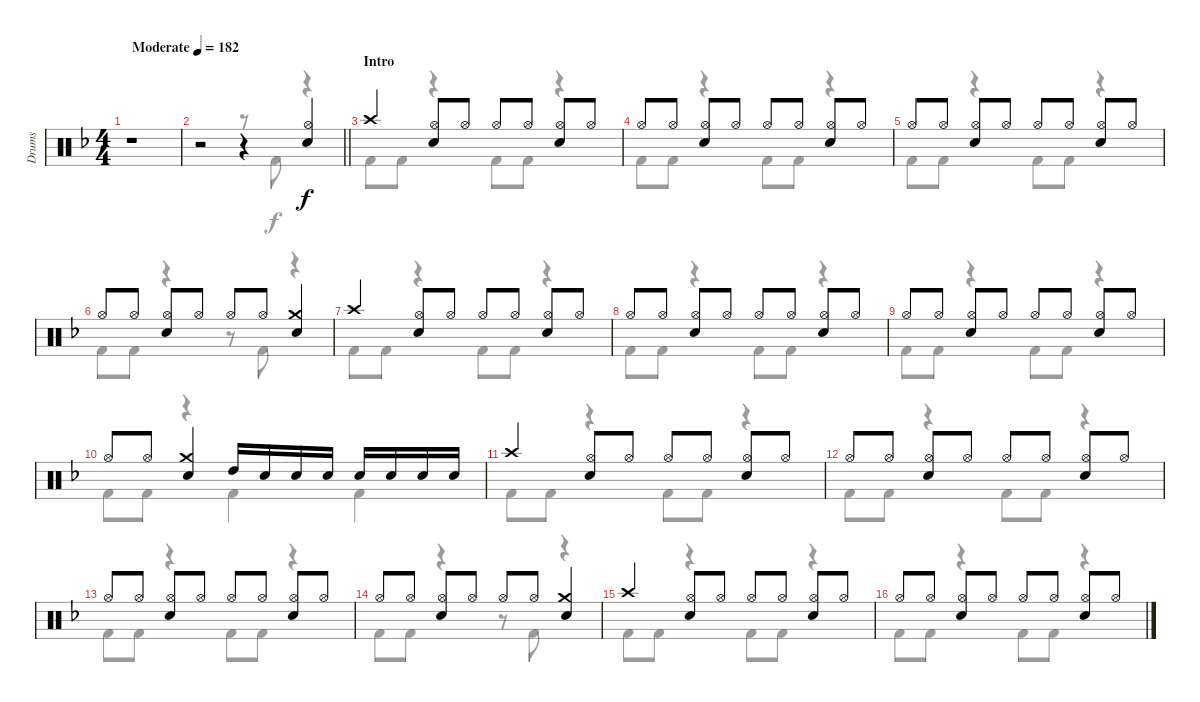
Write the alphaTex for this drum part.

\track ("Drums" "Drums") {instrument percussion}
\staff {score}
\articulation defaults
\voice
\ts (4 4)
\tempo (182 "Moderate")
\clef neutral
\ks f
r.1{dy f} |
\barLineRight lightlight
r.2 r.4 ("Hi-Hat (open)" "Snare (hit) 2").4 |
\section ("" "Intro")
"Crash high (hit)".4 ("Hi-Hat (open)" "Snare (hit) 2").8 "Hi-Hat (open)".8 "Hi-Hat (open)".8 "Hi-Hat (open)".8 ("Hi-Hat (open)" "Snare (hit) 2").8 "Hi-Hat (open)".8 |
"Hi-Hat (open)".8 "Hi-Hat (open)".8 ("Hi-Hat (open)" "Snare (hit) 2").8 "Hi-Hat (open)".8 "Hi-Hat (open)".8 "Hi-Hat (open)".8 ("Hi-Hat (open)" "Snare (hit) 2").8 "Hi-Hat (open)".8 |
"Hi-Hat (open)".8 "Hi-Hat (open)".8 ("Hi-Hat (open)" "Snare (hit) 2").8 "Hi-Hat (open)".8 "Hi-Hat (open)".8 "Hi-Hat (open)".8 ("Hi-Hat (open)" "Snare (hit) 2").8 "Hi-Hat (open)".8 |
"Hi-Hat (open)".8 "Hi-Hat (open)".8 ("Hi-Hat (open)" "Snare (hit) 2").8 "Hi-Hat (open)".8 "Hi-Hat (open)".8 "Hi-Hat (open)".8 ("Crash medium (hit)" "Snare (hit) 2").4 |
"Crash high (hit)".4 ("Hi-Hat (open)" "Snare (hit) 2").8 "Hi-Hat (open)".8 "Hi-Hat (open)".8 "Hi-Hat (open)".8 ("Hi-Hat (open)" "Snare (hit) 2").8 "Hi-Hat (open)".8 |
"Hi-Hat (open)".8 "Hi-Hat (open)".8 ("Hi-Hat (open)" "Snare (hit) 2").8 "Hi-Hat (open)".8 "Hi-Hat (open)".8 "Hi-Hat (open)".8 ("Hi-Hat (open)" "Snare (hit) 2").8 "Hi-Hat (open)".8 |
"Hi-Hat (open)".8 "Hi-Hat (open)".8 ("Hi-Hat (open)" "Snare (hit) 2").8 "Hi-Hat (open)".8 "Hi-Hat (open)".8 "Hi-Hat (open)".8 ("Hi-Hat (open)" "Snare (hit) 2").8 "Hi-Hat (open)".8 |
"Hi-Hat (open)".8 "Hi-Hat (open)".8 ("Crash medium (hit)" "Snare (hit) 2").4 "High Tom (hit)".16 "Snare (hit) 2".16 "Snare (hit) 2".16 "Snare (hit) 2".16 "Snare (hit) 2".16 "Snare (hit) 2".16 "Snare (hit) 2".16 "Snare (hit) 2".16 |
"Crash high (hit)".4 ("Hi-Hat (open)" "Snare (hit) 2").8 "Hi-Hat (open)".8 "Hi-Hat (open)".8 "Hi-Hat (open)".8 ("Hi-Hat (open)" "Snare (hit) 2").8 "Hi-Hat (open)".8 |
"Hi-Hat (open)".8 "Hi-Hat (open)".8 ("Hi-Hat (open)" "Snare (hit) 2").8 "Hi-Hat (open)".8 "Hi-Hat (open)".8 "Hi-Hat (open)".8 ("Hi-Hat (open)" "Snare (hit) 2").8 "Hi-Hat (open)".8 |
"Hi-Hat (open)".8 "Hi-Hat (open)".8 ("Hi-Hat (open)" "Snare (hit) 2").8 "Hi-Hat (open)".8 "Hi-Hat (open)".8 "Hi-Hat (open)".8 ("Hi-Hat (open)" "Snare (hit) 2").8 "Hi-Hat (open)".8 |
"Hi-Hat (open)".8 "Hi-Hat (open)".8 ("Hi-Hat (open)" "Snare (hit) 2").8 "Hi-Hat (open)".8 "Hi-Hat (open)".8 "Hi-Hat (open)".8 ("Crash medium (hit)" "Snare (hit) 2").4 |
"Crash high (hit)".4 ("Hi-Hat (open)" "Snare (hit) 2").8 "Hi-Hat (open)".8 "Hi-Hat (open)".8 "Hi-Hat (open)".8 ("Hi-Hat (open)" "Snare (hit) 2").8 "Hi-Hat (open)".8 |
"Hi-Hat (open)".8 "Hi-Hat (open)".8 ("Hi-Hat (open)" "Snare (hit) 2").8 "Hi-Hat (open)".8 "Hi-Hat (open)".8 "Hi-Hat (open)".8 ("Hi-Hat (open)" "Snare (hit) 2").8 "Hi-Hat (open)".8
\voice
\clef neutral
\ottava regular
\simile none
\ks f
r.1{dy f} |
\barLineRight lightlight
r.2 r.8 "Kick (hit) 2".8 r.4 |
"Kick (hit) 2".8 "Kick (hit) 2".8 r.4 "Kick (hit) 2".8 "Kick (hit) 2".8 r.4 |
"Kick (hit) 2".8 "Kick (hit) 2".8 r.4 "Kick (hit) 2".8 "Kick (hit) 2".8 r.4 |
"Kick (hit) 2".8 "Kick (hit) 2".8 r.4 "Kick (hit) 2".8 "Kick (hit) 2".8 r.4 |
"Kick (hit) 2".8 "Kick (hit) 2".8 r.4 r.8 "Kick (hit) 2".8 r.4 |
"Kick (hit) 2".8 "Kick (hit) 2".8 r.4 "Kick (hit) 2".8 "Kick (hit) 2".8 r.4 |
"Kick (hit) 2".8 "Kick (hit) 2".8 r.4 "Kick (hit) 2".8 "Kick (hit) 2".8 r.4 |
"Kick (hit) 2".8 "Kick (hit) 2".8 r.4 "Kick (hit) 2".8 "Kick (hit) 2".8 r.4 |
"Kick (hit) 2".8 "Kick (hit) 2".8 r.4 "Kick (hit) 2".4 "Kick (hit) 2".4 |
"Kick (hit) 2".8 "Kick (hit) 2".8 r.4 "Kick (hit) 2".8 "Kick (hit) 2".8 r.4 |
"Kick (hit) 2".8 "Kick (hit) 2".8 r.4 "Kick (hit) 2".8 "Kick (hit) 2".8 r.4 |
"Kick (hit) 2".8 "Kick (hit) 2".8 r.4 "Kick (hit) 2".8 "Kick (hit) 2".8 r.4 |
"Kick (hit) 2".8 "Kick (hit) 2".8 r.4 r.8 "Kick (hit) 2".8 r.4 |
"Kick (hit) 2".8 "Kick (hit) 2".8 r.4 "Kick (hit) 2".8 "Kick (hit) 2".8 r.4 |
"Kick (hit) 2".8 "Kick (hit) 2".8 r.4 "Kick (hit) 2".8 "Kick (hit) 2".8 r.4
